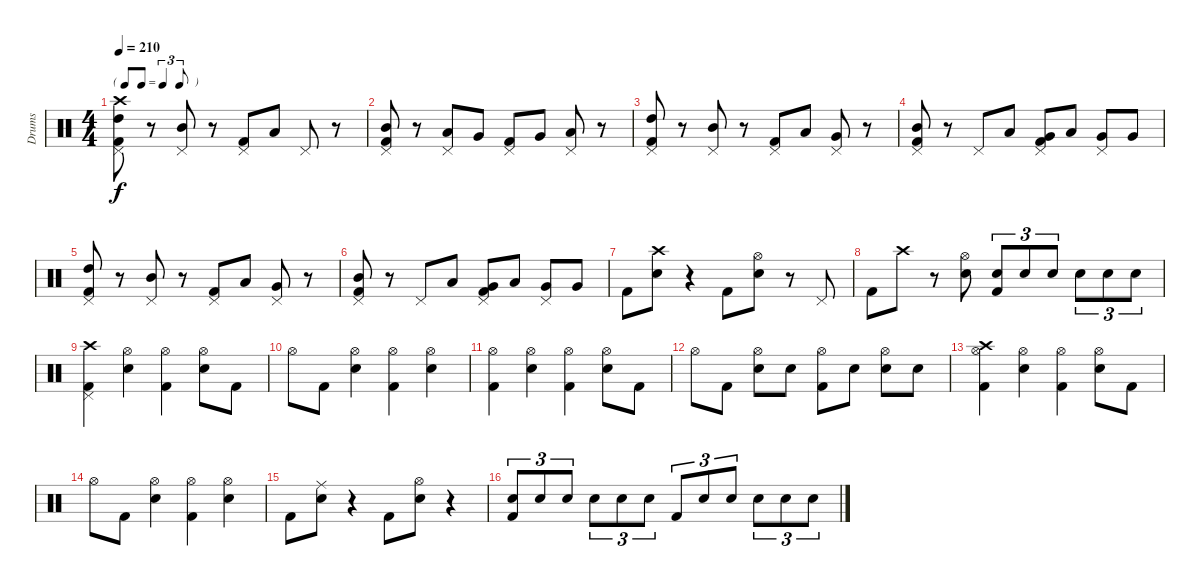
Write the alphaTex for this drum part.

\track ("Drums" "Drums") {instrument percussion}
\staff {score}
\articulation defaults
\ts (4 4)
\tf triplet8th
\tempo 210
\clef neutral
\ks c
("Crash high (hit)" "Pedal Hi-Hat (hit)" "High Tom (hit)" "Kick (hit) 2").8{dy f} r.8 ("Pedal Hi-Hat (hit)" "Mid Tom (hit)").8 r.8 ("Pedal Hi-Hat (hit)" "Kick (hit) 2").8 "Low Tom (hit)".8 "Pedal Hi-Hat (hit)".8 r.8 |
("Pedal Hi-Hat (hit)" "Mid Tom (hit)" "Kick (hit) 2").8 r.8 ("Pedal Hi-Hat (hit)" "Low Tom (hit)").8 "Very Low Tom (hit)".8 ("Pedal Hi-Hat (hit)" "Kick (hit) 2").8 "Very Low Tom (hit)".8 ("Pedal Hi-Hat (hit)" "Low Floor Tom (hit)").8 r.8 |
("Pedal Hi-Hat (hit)" "High Tom (hit)" "Kick (hit) 2").8 r.8 ("Pedal Hi-Hat (hit)" "Mid Tom (hit)").8 r.8 ("Pedal Hi-Hat (hit)" "Kick (hit) 2").8 "Low Tom (hit)".8 ("Pedal Hi-Hat (hit)" "Very Low Tom (hit)").8 r.8 |
("Pedal Hi-Hat (hit)" "Mid Tom (hit)" "Kick (hit) 2").8 r.8 "Pedal Hi-Hat (hit)".8 "Low Tom (hit)".8 ("Pedal Hi-Hat (hit)" "Very Low Tom (hit)" "Kick (hit) 2").8 "Low Tom (hit)".8 ("Pedal Hi-Hat (hit)" "Very Low Tom (hit)").8 "Very Low Tom (hit)".8 |
("Pedal Hi-Hat (hit)" "High Tom (hit)" "Kick (hit) 2").8 r.8 ("Pedal Hi-Hat (hit)" "Mid Tom (hit)").8 r.8 ("Pedal Hi-Hat (hit)" "Kick (hit) 2").8 "Low Tom (hit)".8 ("Pedal Hi-Hat (hit)" "Very Low Tom (hit)").8 r.8 |
("Pedal Hi-Hat (hit)" "Mid Tom (hit)" "Kick (hit) 2").8 r.8 "Pedal Hi-Hat (hit)".8 "Low Tom (hit)".8 ("Pedal Hi-Hat (hit)" "Very Low Tom (hit)" "Kick (hit) 2").8 "Low Tom (hit)".8 ("Pedal Hi-Hat (hit)" "Very Low Tom (hit)").8 "Very Low Tom (hit)".8 |
"Kick (hit) 2".8 ("Crash high (hit)" "Snare (hit) 2").8 r.4 "Kick (hit) 2".8 ("Hi-Hat (open)" "Snare (hit) 2").8 r.8 "Pedal Hi-Hat (hit)".8 |
"Kick (hit) 2".8 "Crash high (hit)".8 r.8 ("Hi-Hat (open)" "Snare (hit) 2").8 ("Snare (hit) 2" "Kick (hit) 2").8{tu (3 2)} "Snare (hit) 2".8{tu (3 2)} "Snare (hit) 2".8{tu (3 2)} "Snare (hit) 2".8{tu (3 2)} "Snare (hit) 2".8{tu (3 2)} "Snare (hit) 2".8{tu (3 2)} |
("Crash high (hit)" "Pedal Hi-Hat (hit)" "Kick (hit) 2").4 ("Hi-Hat (open)" "Snare (hit) 2").4 ("Hi-Hat (open)" "Kick (hit) 2").4 ("Hi-Hat (open)" "Snare (hit) 2").8 "Kick (hit) 2".8 |
"Hi-Hat (open)".8 "Kick (hit) 2".8 ("Hi-Hat (open)" "Snare (hit) 2").4 ("Hi-Hat (open)" "Kick (hit) 2").4 ("Hi-Hat (open)" "Snare (hit) 2").4 |
("Hi-Hat (open)" "Kick (hit) 2").4 ("Hi-Hat (open)" "Snare (hit) 2").4 ("Hi-Hat (open)" "Kick (hit) 2").4 ("Hi-Hat (open)" "Snare (hit) 2").8 "Kick (hit) 2".8 |
"Hi-Hat (open)".8 "Kick (hit) 2".8 ("Hi-Hat (open)" "Snare (hit) 2").8 "Snare (hit) 2".8 ("Hi-Hat (open)" "Kick (hit) 2").8 "Snare (hit) 2".8 ("Hi-Hat (open)" "Snare (hit) 2").8 "Snare (hit) 2".8 |
("Crash high (hit)" "Hi-Hat (open)" "Kick (hit) 2").4 ("Hi-Hat (open)" "Snare (hit) 2").4 ("Hi-Hat (open)" "Kick (hit) 2").4 ("Hi-Hat (open)" "Snare (hit) 2").8 "Kick (hit) 2".8 |
"Hi-Hat (open)".8 "Kick (hit) 2".8 ("Hi-Hat (open)" "Snare (hit) 2").4 ("Hi-Hat (open)" "Kick (hit) 2").4 ("Hi-Hat (open)" "Snare (hit) 2").4 |
"Kick (hit) 2".8 ("Ride (middle)" "Snare (hit) 2").8 r.4 "Kick (hit) 2".8 ("Hi-Hat (open)" "Snare (hit) 2").8 r.4 |
("Snare (hit) 2" "Kick (hit) 2").8{tu (3 2)} "Snare (hit) 2".8{tu (3 2)} "Snare (hit) 2".8{tu (3 2)} "Snare (hit) 2".8{tu (3 2)} "Snare (hit) 2".8{tu (3 2)} "Snare (hit) 2".8{tu (3 2)} "Kick (hit) 2".8{tu (3 2)} "Snare (hit) 2".8{tu (3 2)} "Snare (hit) 2".8{tu (3 2)} "Snare (hit) 2".8{tu (3 2)} "Snare (hit) 2".8{tu (3 2)} "Snare (hit) 2".8{tu (3 2)}
